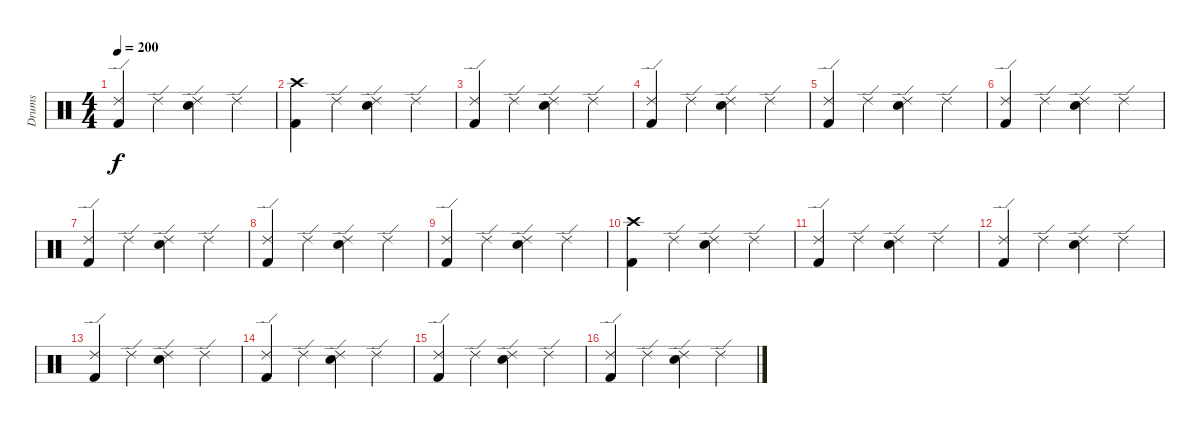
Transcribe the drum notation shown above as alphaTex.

\track ("Drums" "Drums") {instrument percussion}
\staff {score}
\articulation defaults
\ts (4 4)
\tempo 200
\clef neutral
\ks c
("Ride (edge) 2" "Kick (hit) 2").4{dy f} "Ride (edge) 2".4 ("Ride (edge) 2" "Electric Snare (hit)").4 "Ride (edge) 2".4 |
("Crash high (hit)" "Kick (hit) 2").4 "Ride (edge) 2".4 ("Ride (edge) 2" "Electric Snare (hit)").4 "Ride (edge) 2".4 |
("Ride (edge) 2" "Kick (hit) 2").4 "Ride (edge) 2".4 ("Ride (edge) 2" "Electric Snare (hit)").4 "Ride (edge) 2".4 |
("Ride (edge) 2" "Kick (hit) 2").4 "Ride (edge) 2".4 ("Ride (edge) 2" "Electric Snare (hit)").4 "Ride (edge) 2".4 |
("Ride (edge) 2" "Kick (hit) 2").4 "Ride (edge) 2".4 ("Ride (edge) 2" "Electric Snare (hit)").4 "Ride (edge) 2".4 |
("Ride (edge) 2" "Kick (hit) 2").4 "Ride (edge) 2".4 ("Ride (edge) 2" "Electric Snare (hit)").4 "Ride (edge) 2".4 |
("Ride (edge) 2" "Kick (hit) 2").4 "Ride (edge) 2".4 ("Ride (edge) 2" "Electric Snare (hit)").4 "Ride (edge) 2".4 |
("Ride (edge) 2" "Kick (hit) 2").4 "Ride (edge) 2".4 ("Ride (edge) 2" "Electric Snare (hit)").4 "Ride (edge) 2".4 |
("Ride (edge) 2" "Kick (hit) 2").4 "Ride (edge) 2".4 ("Ride (edge) 2" "Electric Snare (hit)").4 "Ride (edge) 2".4 |
("Crash high (hit)" "Kick (hit) 2").4 "Ride (edge) 2".4 ("Ride (edge) 2" "Electric Snare (hit)").4 "Ride (edge) 2".4 |
("Ride (edge) 2" "Kick (hit) 2").4 "Ride (edge) 2".4 ("Ride (edge) 2" "Electric Snare (hit)").4 "Ride (edge) 2".4 |
("Ride (edge) 2" "Kick (hit) 2").4 "Ride (edge) 2".4 ("Ride (edge) 2" "Electric Snare (hit)").4 "Ride (edge) 2".4 |
("Ride (edge) 2" "Kick (hit) 2").4 "Ride (edge) 2".4 ("Ride (edge) 2" "Electric Snare (hit)").4 "Ride (edge) 2".4 |
("Ride (edge) 2" "Kick (hit) 2").4 "Ride (edge) 2".4 ("Ride (edge) 2" "Electric Snare (hit)").4 "Ride (edge) 2".4 |
("Ride (edge) 2" "Kick (hit) 2").4 "Ride (edge) 2".4 ("Ride (edge) 2" "Electric Snare (hit)").4 "Ride (edge) 2".4 |
("Ride (edge) 2" "Kick (hit) 2").4 "Ride (edge) 2".4 ("Ride (edge) 2" "Electric Snare (hit)").4 "Ride (edge) 2".4
